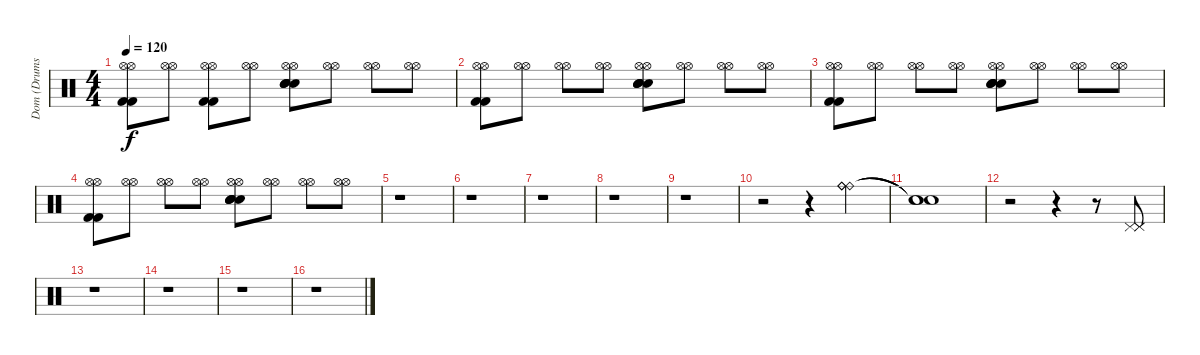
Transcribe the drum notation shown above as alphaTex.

\track ("Dom (Drums)" "Dom (Drums") {instrument percussion}
\staff {score}
\articulation defaults
\ts (4 4)
\tempo 120
\clef neutral
\ks c
("Kick (hit) 2" "Kick (hit) 2" "Hi-Hat (open)" "Hi-Hat (open)").8{dy f} ("Hi-Hat (open)" "Hi-Hat (open)").8 ("Kick (hit) 2" "Kick (hit) 2" "Hi-Hat (open)" "Hi-Hat (open)").8 ("Hi-Hat (open)" "Hi-Hat (open)").8 ("Electric Snare (hit)" "Electric Snare (hit)" "Snare (hit) 2" "Snare (hit) 2" "Hi-Hat (open)" "Hi-Hat (open)").8 ("Hi-Hat (open)" "Hi-Hat (open)").8 ("Hi-Hat (open)" "Hi-Hat (open)").8 ("Hi-Hat (open)" "Hi-Hat (open)").8 |
("Kick (hit) 2" "Kick (hit) 2" "Hi-Hat (open)" "Hi-Hat (open)").8 ("Hi-Hat (open)" "Hi-Hat (open)").8 ("Hi-Hat (open)" "Hi-Hat (open)").8 ("Hi-Hat (open)" "Hi-Hat (open)").8 ("Electric Snare (hit)" "Electric Snare (hit)" "Snare (hit) 2" "Snare (hit) 2" "Hi-Hat (open)" "Hi-Hat (open)").8 ("Hi-Hat (open)" "Hi-Hat (open)").8 ("Hi-Hat (open)" "Hi-Hat (open)").8 ("Hi-Hat (open)" "Hi-Hat (open)").8 |
("Kick (hit) 2" "Kick (hit) 2" "Hi-Hat (open)" "Hi-Hat (open)").8 ("Hi-Hat (open)" "Hi-Hat (open)").8 ("Hi-Hat (open)" "Hi-Hat (open)").8 ("Hi-Hat (open)" "Hi-Hat (open)").8 ("Electric Snare (hit)" "Electric Snare (hit)" "Snare (hit) 2" "Snare (hit) 2" "Hi-Hat (open)" "Hi-Hat (open)").8 ("Hi-Hat (open)" "Hi-Hat (open)").8 ("Hi-Hat (open)" "Hi-Hat (open)").8 ("Hi-Hat (open)" "Hi-Hat (open)").8 |
("Kick (hit) 2" "Kick (hit) 2" "Hi-Hat (open)" "Hi-Hat (open)").8{volume 0} ("Hi-Hat (open)" "Hi-Hat (open)").8 ("Hi-Hat (open)" "Hi-Hat (open)").8 ("Hi-Hat (open)" "Hi-Hat (open)").8 ("Electric Snare (hit)" "Electric Snare (hit)" "Snare (hit) 2" "Snare (hit) 2" "Hi-Hat (open)" "Hi-Hat (open)").8 ("Hi-Hat (open)" "Hi-Hat (open)").8 ("Hi-Hat (open)" "Hi-Hat (open)").8 ("Hi-Hat (open)" "Hi-Hat (open)").8 |
r.1 |
r.1 |
r.1 |
r.1 |
r.1 |
r.2{volume 14} r.4 ("Ride (bell)" "Ride (bell)" "Ride (bell)").4 |
("Snare (hit)"{t} "Snare (hit)"{t} "Snare (hit)"{t}).1 |
r.2 r.4 r.8 ("Pedal Hi-Hat (hit)" "Pedal Hi-Hat (hit)" "Pedal Hi-Hat (hit)").8 |
r.1 |
r.1 |
r.1 |
r.1
